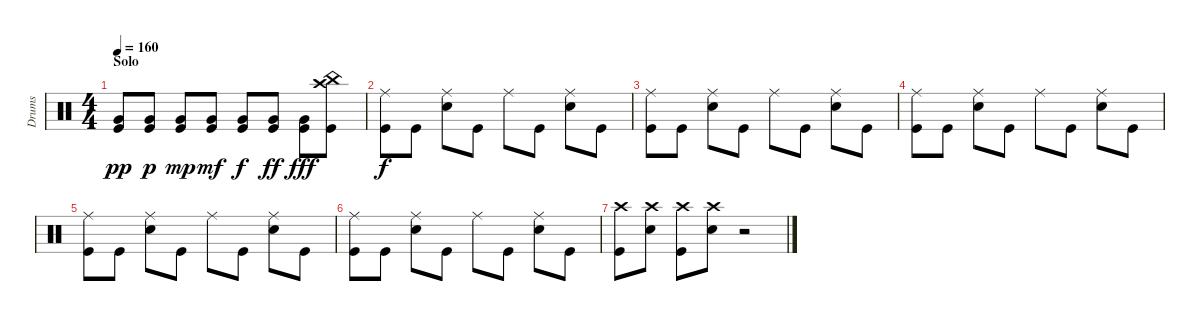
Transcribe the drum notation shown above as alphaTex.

\track ("Drums" "Drums") {instrument percussion}
\staff {score}
\articulation defaults
\ts (4 4)
\section ("" "Solo")
\tempo 160
\clef neutral
\ks c
("Very Low Tom (hit)" "Kick (hit)").8{dy pp} ("Very Low Tom (hit)" "Kick (hit)").8{dy p} ("Very Low Tom (hit)" "Kick (hit)").8{dy mp} ("Very Low Tom (hit)" "Kick (hit)").8{dy mf} ("Very Low Tom (hit)" "Kick (hit)").8{dy f} ("Very Low Tom (hit)" "Kick (hit)").8{dy ff} ("Very Low Tom (hit)" "Kick (hit)").8{dy fff} ("China (hit)" "Crash high (hit)" "Kick (hit)").8 |
("Ride (middle)" "Kick (hit)").8{dy f} "Kick (hit)".8 ("Ride (middle)" "Snare (hit) 2").8 "Kick (hit)".8 "Ride (middle)".8 "Kick (hit)".8 ("Ride (middle)" "Snare (hit) 2").8 "Kick (hit)".8 |
("Ride (middle)" "Kick (hit)").8 "Kick (hit)".8 ("Ride (middle)" "Snare (hit) 2").8 "Kick (hit)".8 "Ride (middle)".8 "Kick (hit)".8 ("Ride (middle)" "Snare (hit) 2").8 "Kick (hit)".8 |
("Ride (middle)" "Kick (hit)").8 "Kick (hit)".8 ("Ride (middle)" "Snare (hit) 2").8 "Kick (hit)".8 "Ride (middle)".8 "Kick (hit)".8 ("Ride (middle)" "Snare (hit) 2").8 "Kick (hit)".8 |
("Ride (middle)" "Kick (hit)").8 "Kick (hit)".8 ("Ride (middle)" "Snare (hit) 2").8 "Kick (hit)".8 "Ride (middle)".8 "Kick (hit)".8 ("Ride (middle)" "Snare (hit) 2").8 "Kick (hit)".8 |
("Ride (middle)" "Kick (hit)").8 "Kick (hit)".8 ("Ride (middle)" "Snare (hit) 2").8 "Kick (hit)".8 "Ride (middle)".8 "Kick (hit)".8 ("Ride (middle)" "Snare (hit) 2").8 "Kick (hit)".8 |
("Crash high (hit)" "Kick (hit)").8 ("Crash high (hit)" "Snare (hit) 2").8 ("Crash high (hit)" "Kick (hit)").8 ("Crash high (hit)" "Snare (hit) 2").8 r.2
